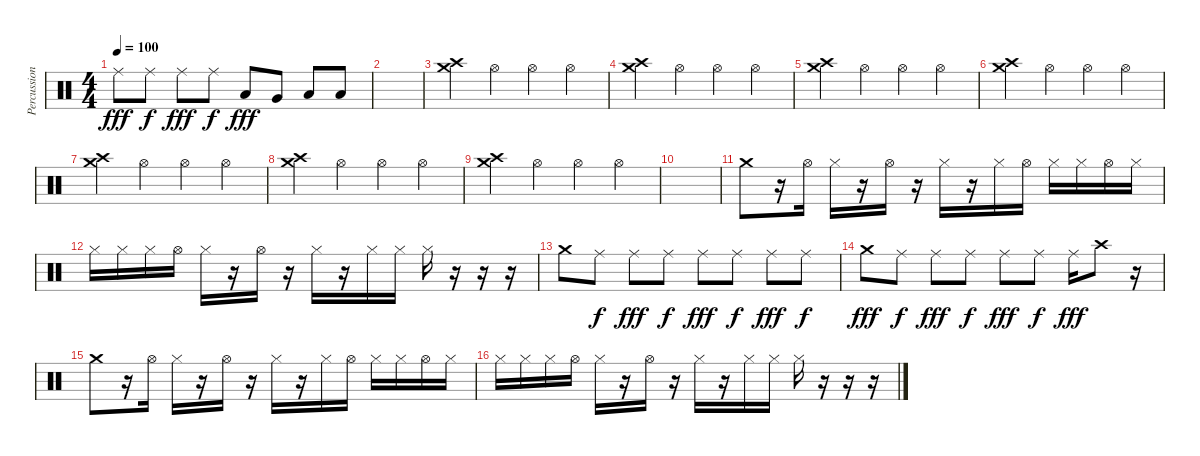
\track ("Percussion" "Percussion") {instrument percussion}
\staff {score}
\articulation defaults
\ts (4 4)
\tempo 100
\clef neutral
\ks c "Ride (middle)".8{dy fff} "Ride (middle)".8{dy f} "Ride (middle)".8{dy fff} "Ride (middle)".8{dy f} "Low Tom (hit)".8{dy fff} "Very Low Tom (hit)".8 "Low Floor Tom (hit)".8 "Low Floor Tom (hit)".8
|
|
("Crash high (hit)" "Crash medium (hit)").4 "Hi-Hat (open)".4 "Hi-Hat (open)".4 "Hi-Hat (open)".4 |
("Crash high (hit)" "Crash medium (hit)").4 "Hi-Hat (open)".4 "Hi-Hat (open)".4 "Hi-Hat (open)".4 |
("Crash high (hit)" "Crash medium (hit)").4 "Hi-Hat (open)".4 "Hi-Hat (open)".4 "Hi-Hat (open)".4 |
("Crash high (hit)" "Crash medium (hit)").4 "Hi-Hat (open)".4 "Hi-Hat (open)".4 "Hi-Hat (open)".4 |
("Crash high (hit)" "Crash medium (hit)").4 "Hi-Hat (open)".4 "Hi-Hat (open)".4 "Hi-Hat (open)".4 |
("Crash high (hit)" "Crash medium (hit)").4 "Hi-Hat (open)".4 "Hi-Hat (open)".4 "Hi-Hat (open)".4 |
("Crash high (hit)" "Crash medium (hit)").4 "Hi-Hat (open)".4 "Hi-Hat (open)".4 "Hi-Hat (open)".4 |
|
"Crash medium (hit)".8 r.16 "Hi-Hat (open)".16 "Hi-Hat (closed)".16 r.16 "Hi-Hat (open)".16 r.16 "Hi-Hat (closed)".16 r.16 "Hi-Hat (closed)".16 "Hi-Hat (open)".16 "Hi-Hat (closed)".16 "Hi-Hat (closed)".16 "Hi-Hat (open)".16 "Hi-Hat (closed)".16 |
"Hi-Hat (closed)".16 "Hi-Hat (closed)".16 "Hi-Hat (closed)".16 "Hi-Hat (open)".16 "Hi-Hat (closed)".16 r.16 "Hi-Hat (open)".16 r.16 "Hi-Hat (closed)".16 r.16 "Hi-Hat (closed)".16 "Hi-Hat (closed)".16 "Hi-Hat (closed)".16 r.16 r.16 r.16 |
"Crash medium (hit)".8 "Ride (middle)".8{dy f} "Ride (middle)".8{dy fff} "Ride (middle)".8{dy f} "Ride (middle)".8{dy fff} "Ride (middle)".8{dy f} "Ride (middle)".8{dy fff} "Ride (middle)".8{dy f} |
"Crash medium (hit)".8{dy fff} "Ride (middle)".8{dy f} "Ride (middle)".8{dy fff} "Ride (middle)".8{dy f} "Ride (middle)".8{dy fff} "Ride (middle)".8{dy f} "Ride (middle)".16{dy fff} "Crash high (hit)".8 r.16 |
"Crash medium (hit)".8 r.16 "Hi-Hat (open)".16 "Hi-Hat (closed)".16 r.16 "Hi-Hat (open)".16 r.16 "Hi-Hat (closed)".16 r.16 "Hi-Hat (closed)".16 "Hi-Hat (open)".16 "Hi-Hat (closed)".16 "Hi-Hat (closed)".16 "Hi-Hat (open)".16 "Hi-Hat (closed)".16 |
"Hi-Hat (closed)".16 "Hi-Hat (closed)".16 "Hi-Hat (closed)".16 "Hi-Hat (open)".16 "Hi-Hat (closed)".16 r.16 "Hi-Hat (open)".16 r.16 "Hi-Hat (closed)".16 r.16 "Hi-Hat (closed)".16 "Hi-Hat (closed)".16 "Hi-Hat (closed)".16 r.16 r.16 r.16
